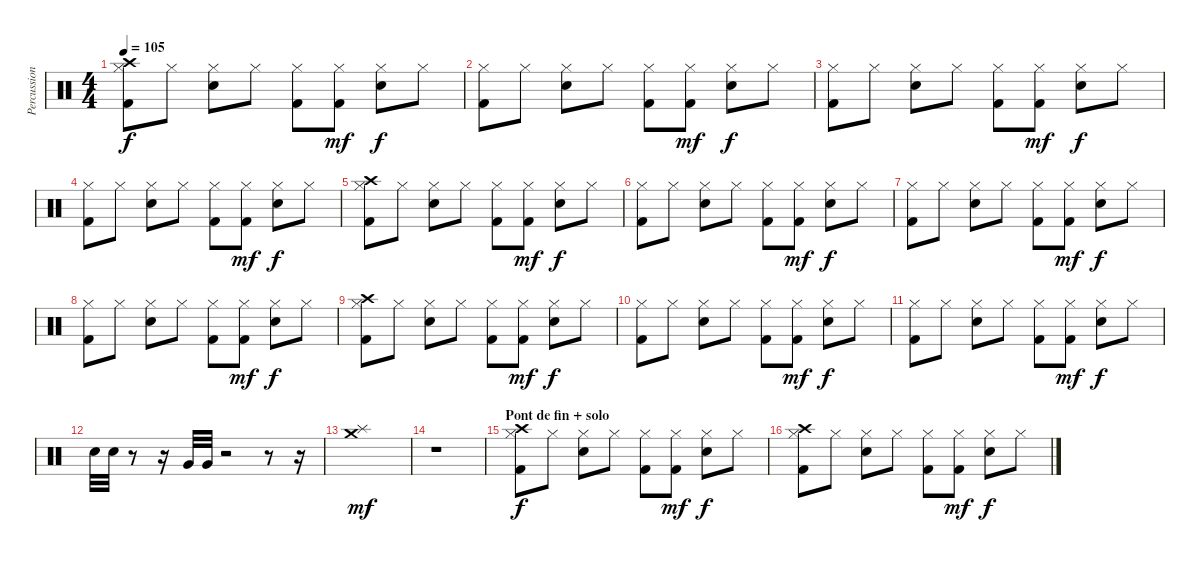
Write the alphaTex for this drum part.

\track ("Percussions" "Percussion") {instrument percussion}
\staff {score}
\articulation defaults
\ts (4 4)
\tempo 105
\clef neutral
\ks c
("Hi-Hat (closed)" "Crash high (hit)" "Kick (hit) 2").8{dy f} "Hi-Hat (closed)".8 ("Hi-Hat (closed)" "Electric Snare (hit)").8 "Hi-Hat (closed)".8 ("Hi-Hat (closed)" "Kick (hit) 2").8 ("Hi-Hat (closed)" "Kick (hit) 2").8{dy mf} ("Hi-Hat (closed)" "Electric Snare (hit)").8{dy f} "Hi-Hat (closed)".8 |
("Hi-Hat (closed)" "Kick (hit) 2").8 "Hi-Hat (closed)".8 ("Hi-Hat (closed)" "Electric Snare (hit)").8 "Hi-Hat (closed)".8 ("Hi-Hat (closed)" "Kick (hit) 2").8 ("Hi-Hat (closed)" "Kick (hit) 2").8{dy mf} ("Hi-Hat (closed)" "Electric Snare (hit)").8{dy f} "Hi-Hat (closed)".8 |
("Hi-Hat (closed)" "Kick (hit) 2").8 "Hi-Hat (closed)".8 ("Hi-Hat (closed)" "Electric Snare (hit)").8 "Hi-Hat (closed)".8 ("Hi-Hat (closed)" "Kick (hit) 2").8 ("Hi-Hat (closed)" "Kick (hit) 2").8{dy mf} ("Hi-Hat (closed)" "Electric Snare (hit)").8{dy f} "Hi-Hat (closed)".8 |
("Hi-Hat (closed)" "Kick (hit) 2").8 "Hi-Hat (closed)".8 ("Hi-Hat (closed)" "Electric Snare (hit)").8 "Hi-Hat (closed)".8 ("Hi-Hat (closed)" "Kick (hit) 2").8 ("Hi-Hat (closed)" "Kick (hit) 2").8{dy mf} ("Hi-Hat (closed)" "Electric Snare (hit)").8{dy f} "Hi-Hat (closed)".8 |
("Hi-Hat (closed)" "Crash high (hit)" "Kick (hit) 2").8 "Hi-Hat (closed)".8 ("Hi-Hat (closed)" "Electric Snare (hit)").8 "Hi-Hat (closed)".8 ("Hi-Hat (closed)" "Kick (hit) 2").8 ("Hi-Hat (closed)" "Kick (hit) 2").8{dy mf} ("Hi-Hat (closed)" "Electric Snare (hit)").8{dy f} "Hi-Hat (closed)".8 |
("Hi-Hat (closed)" "Kick (hit) 2").8 "Hi-Hat (closed)".8 ("Hi-Hat (closed)" "Electric Snare (hit)").8 "Hi-Hat (closed)".8 ("Hi-Hat (closed)" "Kick (hit) 2").8 ("Hi-Hat (closed)" "Kick (hit) 2").8{dy mf} ("Hi-Hat (closed)" "Electric Snare (hit)").8{dy f} "Hi-Hat (closed)".8 |
("Hi-Hat (closed)" "Kick (hit) 2").8 "Hi-Hat (closed)".8 ("Hi-Hat (closed)" "Electric Snare (hit)").8 "Hi-Hat (closed)".8 ("Hi-Hat (closed)" "Kick (hit) 2").8 ("Hi-Hat (closed)" "Kick (hit) 2").8{dy mf} ("Hi-Hat (closed)" "Electric Snare (hit)").8{dy f} "Hi-Hat (closed)".8 |
("Hi-Hat (closed)" "Kick (hit) 2").8 "Hi-Hat (closed)".8 ("Hi-Hat (closed)" "Electric Snare (hit)").8 "Hi-Hat (closed)".8 ("Hi-Hat (closed)" "Kick (hit) 2").8 ("Hi-Hat (closed)" "Kick (hit) 2").8{dy mf} ("Hi-Hat (closed)" "Electric Snare (hit)").8{dy f} "Hi-Hat (closed)".8 |
("Hi-Hat (closed)" "Crash high (hit)" "Kick (hit) 2").8 "Hi-Hat (closed)".8 ("Hi-Hat (closed)" "Electric Snare (hit)").8 "Hi-Hat (closed)".8 ("Hi-Hat (closed)" "Kick (hit) 2").8 ("Hi-Hat (closed)" "Kick (hit) 2").8{dy mf} ("Hi-Hat (closed)" "Electric Snare (hit)").8{dy f} "Hi-Hat (closed)".8 |
("Hi-Hat (closed)" "Kick (hit) 2").8 "Hi-Hat (closed)".8 ("Hi-Hat (closed)" "Electric Snare (hit)").8 "Hi-Hat (closed)".8 ("Hi-Hat (closed)" "Kick (hit) 2").8 ("Hi-Hat (closed)" "Kick (hit) 2").8{dy mf} ("Hi-Hat (closed)" "Electric Snare (hit)").8{dy f} "Hi-Hat (closed)".8 |
("Hi-Hat (closed)" "Kick (hit) 2").8 "Hi-Hat (closed)".8 ("Hi-Hat (closed)" "Electric Snare (hit)").8 "Hi-Hat (closed)".8 ("Hi-Hat (closed)" "Kick (hit) 2").8 ("Hi-Hat (closed)" "Kick (hit) 2").8{dy mf} ("Hi-Hat (closed)" "Electric Snare (hit)").8{dy f} "Hi-Hat (closed)".8 |
"Electric Snare (hit)".32 "Electric Snare (hit)".32 r.8 r.16 "Very Low Tom (hit)".32 "Very Low Tom (hit)".32 r.2 r.8 r.16 |
("Splash (hit)" "Crash medium (hit)").1{dy mf} |
r.1 |
\section ("" "Pont de fin + solo")
("Hi-Hat (closed)" "Crash high (hit)" "Kick (hit) 2").8{dy f} "Hi-Hat (closed)".8 ("Hi-Hat (closed)" "Electric Snare (hit)").8 "Hi-Hat (closed)".8 ("Hi-Hat (closed)" "Kick (hit) 2").8 ("Hi-Hat (closed)" "Kick (hit) 2").8{dy mf} ("Hi-Hat (closed)" "Electric Snare (hit)").8{dy f} "Hi-Hat (closed)".8 |
("Hi-Hat (closed)" "Crash high (hit)" "Kick (hit) 2").8 "Hi-Hat (closed)".8 ("Hi-Hat (closed)" "Electric Snare (hit)").8 "Hi-Hat (closed)".8 ("Hi-Hat (closed)" "Kick (hit) 2").8 ("Hi-Hat (closed)" "Kick (hit) 2").8{dy mf} ("Hi-Hat (closed)" "Electric Snare (hit)").8{dy f} "Hi-Hat (closed)".8
